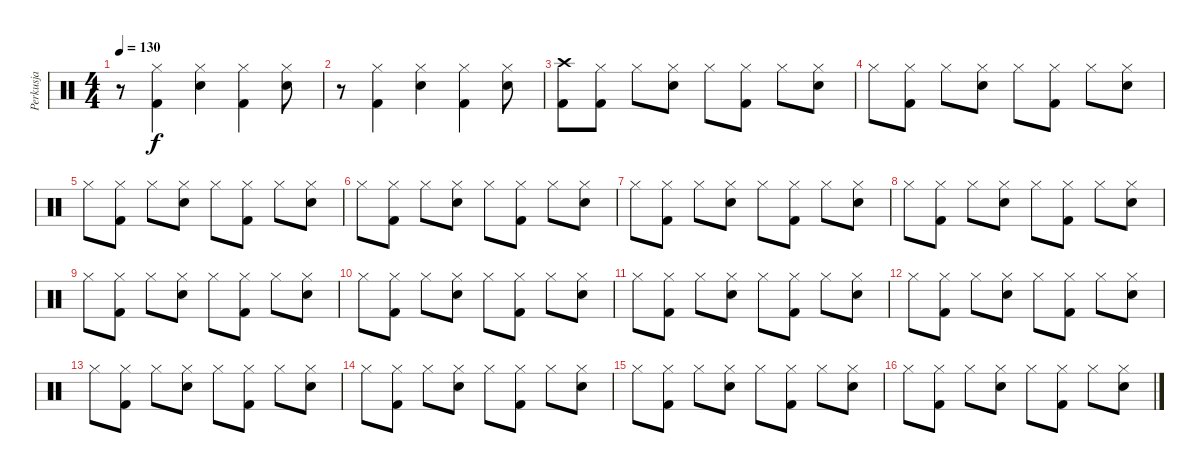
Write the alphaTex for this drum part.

\track ("Perkusja" "Perkusja") {instrument percussion}
\staff {score}
\articulation defaults
\ts (4 4)
\tempo 130
\clef neutral
\ks c
r.8{dy f} ("Hi-Hat (closed)" "Kick (hit) 2").4 ("Hi-Hat (closed)" "Snare (hit) 2").4 ("Hi-Hat (closed)" "Kick (hit) 2").4 ("Hi-Hat (closed)" "Snare (hit) 2").8 |
r.8 ("Hi-Hat (closed)" "Kick (hit) 2").4 ("Hi-Hat (closed)" "Snare (hit) 2").4 ("Hi-Hat (closed)" "Kick (hit) 2").4 ("Hi-Hat (closed)" "Snare (hit) 2").8 |
("Crash high (hit)" "Kick (hit) 2").8 ("Hi-Hat (closed)" "Kick (hit) 2").8 "Hi-Hat (closed)".8 ("Hi-Hat (closed)" "Snare (hit) 2").8 "Hi-Hat (closed)".8 ("Hi-Hat (closed)" "Kick (hit) 2").8 "Hi-Hat (closed)".8 ("Hi-Hat (closed)" "Snare (hit) 2").8 |
"Hi-Hat (closed)".8 ("Hi-Hat (closed)" "Kick (hit) 2").8 "Hi-Hat (closed)".8 ("Hi-Hat (closed)" "Snare (hit) 2").8 "Hi-Hat (closed)".8 ("Hi-Hat (closed)" "Kick (hit) 2").8 "Hi-Hat (closed)".8 ("Hi-Hat (closed)" "Snare (hit) 2").8 |
"Hi-Hat (closed)".8 ("Hi-Hat (closed)" "Kick (hit) 2").8 "Hi-Hat (closed)".8 ("Hi-Hat (closed)" "Snare (hit) 2").8 "Hi-Hat (closed)".8 ("Hi-Hat (closed)" "Kick (hit) 2").8 "Hi-Hat (closed)".8 ("Hi-Hat (closed)" "Snare (hit) 2").8 |
"Hi-Hat (closed)".8 ("Hi-Hat (closed)" "Kick (hit) 2").8 "Hi-Hat (closed)".8 ("Hi-Hat (closed)" "Snare (hit) 2").8 "Hi-Hat (closed)".8 ("Hi-Hat (closed)" "Kick (hit) 2").8 "Hi-Hat (closed)".8 ("Hi-Hat (closed)" "Snare (hit) 2").8 |
"Hi-Hat (closed)".8 ("Hi-Hat (closed)" "Kick (hit) 2").8 "Hi-Hat (closed)".8 ("Hi-Hat (closed)" "Snare (hit) 2").8 "Hi-Hat (closed)".8 ("Hi-Hat (closed)" "Kick (hit) 2").8 "Hi-Hat (closed)".8 ("Hi-Hat (closed)" "Snare (hit) 2").8 |
"Hi-Hat (closed)".8 ("Hi-Hat (closed)" "Kick (hit) 2").8 "Hi-Hat (closed)".8 ("Hi-Hat (closed)" "Snare (hit) 2").8 "Hi-Hat (closed)".8 ("Hi-Hat (closed)" "Kick (hit) 2").8 "Hi-Hat (closed)".8 ("Hi-Hat (closed)" "Snare (hit) 2").8 |
"Hi-Hat (closed)".8 ("Hi-Hat (closed)" "Kick (hit) 2").8 "Hi-Hat (closed)".8 ("Hi-Hat (closed)" "Snare (hit) 2").8 "Hi-Hat (closed)".8 ("Hi-Hat (closed)" "Kick (hit) 2").8 "Hi-Hat (closed)".8 ("Hi-Hat (closed)" "Snare (hit) 2").8 |
"Hi-Hat (closed)".8 ("Hi-Hat (closed)" "Kick (hit) 2").8 "Hi-Hat (closed)".8 ("Hi-Hat (closed)" "Snare (hit) 2").8 "Hi-Hat (closed)".8 ("Hi-Hat (closed)" "Kick (hit) 2").8 "Hi-Hat (closed)".8 ("Hi-Hat (closed)" "Snare (hit) 2").8 |
"Hi-Hat (closed)".8 ("Hi-Hat (closed)" "Kick (hit) 2").8 "Hi-Hat (closed)".8 ("Hi-Hat (closed)" "Snare (hit) 2").8 "Hi-Hat (closed)".8 ("Hi-Hat (closed)" "Kick (hit) 2").8 "Hi-Hat (closed)".8 ("Hi-Hat (closed)" "Snare (hit) 2").8 |
"Hi-Hat (closed)".8 ("Hi-Hat (closed)" "Kick (hit) 2").8 "Hi-Hat (closed)".8 ("Hi-Hat (closed)" "Snare (hit) 2").8 "Hi-Hat (closed)".8 ("Hi-Hat (closed)" "Kick (hit) 2").8 "Hi-Hat (closed)".8 ("Hi-Hat (closed)" "Snare (hit) 2").8 |
"Hi-Hat (closed)".8 ("Hi-Hat (closed)" "Kick (hit) 2").8 "Hi-Hat (closed)".8 ("Hi-Hat (closed)" "Snare (hit) 2").8 "Hi-Hat (closed)".8 ("Hi-Hat (closed)" "Kick (hit) 2").8 "Hi-Hat (closed)".8 ("Hi-Hat (closed)" "Snare (hit) 2").8 |
"Hi-Hat (closed)".8 ("Hi-Hat (closed)" "Kick (hit) 2").8 "Hi-Hat (closed)".8 ("Hi-Hat (closed)" "Snare (hit) 2").8 "Hi-Hat (closed)".8 ("Hi-Hat (closed)" "Kick (hit) 2").8 "Hi-Hat (closed)".8 ("Hi-Hat (closed)" "Snare (hit) 2").8 |
"Hi-Hat (closed)".8 ("Hi-Hat (closed)" "Kick (hit) 2").8 "Hi-Hat (closed)".8 ("Hi-Hat (closed)" "Snare (hit) 2").8 "Hi-Hat (closed)".8 ("Hi-Hat (closed)" "Kick (hit) 2").8 "Hi-Hat (closed)".8 ("Hi-Hat (closed)" "Snare (hit) 2").8 |
"Hi-Hat (closed)".8 ("Hi-Hat (closed)" "Kick (hit) 2").8 "Hi-Hat (closed)".8 ("Hi-Hat (closed)" "Snare (hit) 2").8 "Hi-Hat (closed)".8 ("Hi-Hat (closed)" "Kick (hit) 2").8 "Hi-Hat (closed)".8 ("Hi-Hat (closed)" "Snare (hit) 2").8
